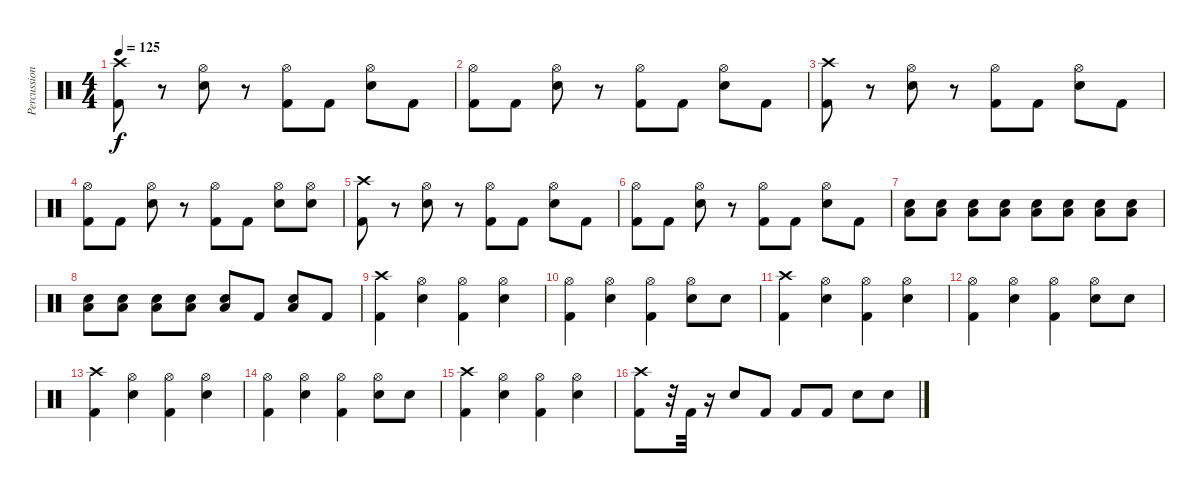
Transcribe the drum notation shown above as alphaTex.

\track ("Percussion" "Percussion") {instrument percussion}
\staff {score}
\articulation defaults
\ts (4 4)
\tempo 125
\clef neutral
\ks c
("Crash high (hit)" "Kick (hit) 2").8{dy f} r.8 ("Hi-Hat (open)" "Snare (hit) 2").8 r.8 ("Hi-Hat (open)" "Kick (hit) 2").8 "Kick (hit) 2".8 ("Hi-Hat (open)" "Snare (hit) 2").8 "Kick (hit) 2".8 |
("Hi-Hat (open)" "Kick (hit) 2").8 "Kick (hit) 2".8 ("Hi-Hat (open)" "Snare (hit) 2").8 r.8 ("Hi-Hat (open)" "Kick (hit) 2").8 "Kick (hit) 2".8 ("Hi-Hat (open)" "Snare (hit) 2").8 "Kick (hit) 2".8 |
("Crash high (hit)" "Kick (hit) 2").8 r.8 ("Hi-Hat (open)" "Snare (hit) 2").8 r.8 ("Hi-Hat (open)" "Kick (hit) 2").8 "Kick (hit) 2".8 ("Hi-Hat (open)" "Snare (hit) 2").8 "Kick (hit) 2".8 |
("Hi-Hat (open)" "Kick (hit) 2").8 "Kick (hit) 2".8 ("Hi-Hat (open)" "Snare (hit) 2").8 r.8 ("Hi-Hat (open)" "Kick (hit) 2").8 "Kick (hit) 2".8 ("Hi-Hat (open)" "Snare (hit) 2").8 ("Hi-Hat (open)" "Snare (hit) 2").8 |
("Crash high (hit)" "Kick (hit) 2").8 r.8 ("Hi-Hat (open)" "Snare (hit) 2").8 r.8 ("Hi-Hat (open)" "Kick (hit) 2").8 "Kick (hit) 2".8 ("Hi-Hat (open)" "Snare (hit) 2").8 "Kick (hit) 2".8 |
("Hi-Hat (open)" "Kick (hit) 2").8 "Kick (hit) 2".8 ("Hi-Hat (open)" "Snare (hit) 2").8 r.8 ("Hi-Hat (open)" "Kick (hit) 2").8 "Kick (hit) 2".8 ("Hi-Hat (open)" "Snare (hit) 2").8 "Kick (hit) 2".8 |
("Low Floor Tom (hit)" "Snare (hit) 2").8 ("Low Floor Tom (hit)" "Snare (hit) 2").8 ("Low Floor Tom (hit)" "Snare (hit) 2").8 ("Low Floor Tom (hit)" "Snare (hit) 2").8 ("Low Floor Tom (hit)" "Snare (hit) 2").8 ("Low Floor Tom (hit)" "Snare (hit) 2").8 ("Low Floor Tom (hit)" "Snare (hit) 2").8 ("Low Floor Tom (hit)" "Snare (hit) 2").8 |
("Low Floor Tom (hit)" "Snare (hit) 2").8 ("Low Floor Tom (hit)" "Snare (hit) 2").8 ("Low Floor Tom (hit)" "Snare (hit) 2").8 ("Low Floor Tom (hit)" "Snare (hit) 2").8 ("Low Floor Tom (hit)" "Snare (hit) 2").8 "Kick (hit) 2".8 ("Low Floor Tom (hit)" "Snare (hit) 2").8 "Kick (hit) 2".8 |
("Crash high (hit)" "Kick (hit) 2").4 ("Hi-Hat (open)" "Snare (hit) 2").4 ("Hi-Hat (open)" "Kick (hit) 2").4 ("Hi-Hat (open)" "Snare (hit) 2").4 |
("Hi-Hat (open)" "Kick (hit) 2").4 ("Hi-Hat (open)" "Snare (hit) 2").4 ("Hi-Hat (open)" "Kick (hit) 2").4 ("Hi-Hat (open)" "Snare (hit) 2").8 "Snare (hit) 2".8 |
("Crash high (hit)" "Kick (hit) 2").4 ("Hi-Hat (open)" "Snare (hit) 2").4 ("Hi-Hat (open)" "Kick (hit) 2").4 ("Hi-Hat (open)" "Snare (hit) 2").4 |
("Hi-Hat (open)" "Kick (hit) 2").4 ("Hi-Hat (open)" "Snare (hit) 2").4 ("Hi-Hat (open)" "Kick (hit) 2").4 ("Hi-Hat (open)" "Snare (hit) 2").8 "Snare (hit) 2".8 |
("Crash high (hit)" "Kick (hit) 2").4 ("Hi-Hat (open)" "Snare (hit) 2").4 ("Hi-Hat (open)" "Kick (hit) 2").4 ("Hi-Hat (open)" "Snare (hit) 2").4 |
("Hi-Hat (open)" "Kick (hit) 2").4 ("Hi-Hat (open)" "Snare (hit) 2").4 ("Hi-Hat (open)" "Kick (hit) 2").4 ("Hi-Hat (open)" "Snare (hit) 2").8 "Snare (hit) 2".8 |
("Crash high (hit)" "Kick (hit) 2").4 ("Hi-Hat (open)" "Snare (hit) 2").4 ("Hi-Hat (open)" "Kick (hit) 2").4 ("Hi-Hat (open)" "Snare (hit) 2").4 |
("Crash high (hit)" "Kick (hit) 2").8 r.32 "Kick (hit) 2".32 r.16 "Snare (hit) 2".8 "Kick (hit) 2".8 "Kick (hit) 2".8 "Kick (hit) 2".8 "Snare (hit) 2".8 "Snare (hit) 2".8
